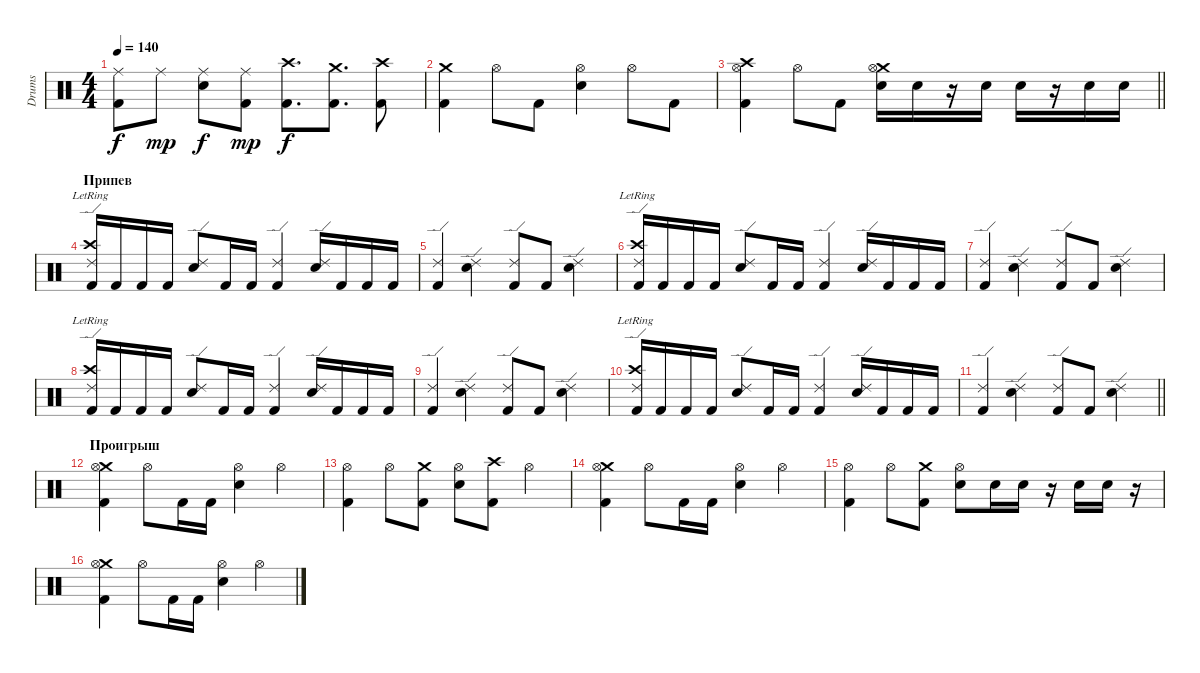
\track ("Drums" "Drums") {instrument percussion}
\staff {score}
\articulation defaults
\ts (4 4)
\tempo 140
\clef neutral
\ks c
("Kick (hit) 2" "Ride (middle)").8{dy f} "Ride (middle)".8{dy mp} ("Electric Snare (hit)" "Ride (middle)").8{dy f} ("Kick (hit) 2" "Ride (middle)").8{dy mp} ("Crash high (hit)" "Kick (hit) 2").8{d dy f} ("Crash medium (hit)" "Kick (hit) 2").8{d} ("Crash high (hit)" "Kick (hit) 2").8 |
("Crash medium (hit)" "Kick (hit) 2").4 "Hi-Hat (open)".8 "Kick (hit) 2".8 ("Electric Snare (hit)" "Hi-Hat (open)").4 "Hi-Hat (open)".8 "Kick (hit) 2".8 |
\barLineRight lightlight
("Crash high (hit)" "Kick (hit) 2" "Hi-Hat (open)").4 "Hi-Hat (open)".8 "Kick (hit) 2".8 ("Crash medium (hit)" "Electric Snare (hit)" "Hi-Hat (open)").16 "Electric Snare (hit)".16 r.16 "Electric Snare (hit)".16 "Electric Snare (hit)".16 r.16 "Electric Snare (hit)".16 "Electric Snare (hit)".16 |
\section ("" "Припев")
("Crash high (hit)"{lr} "Ride (edge) 2"{lr} "Kick (hit) 2").16 "Kick (hit) 2".16 "Kick (hit) 2".16 "Kick (hit) 2".16 ("Ride (edge) 2" "Electric Snare (hit)").8 "Kick (hit) 2".16 "Kick (hit) 2".16 ("Ride (edge) 2" "Kick (hit) 2").4 ("Ride (edge) 2" "Electric Snare (hit)").16 "Kick (hit) 2".16 "Kick (hit) 2".16 "Kick (hit) 2".16 |
("Ride (edge) 2" "Kick (hit) 2").4 ("Ride (edge) 2" "Electric Snare (hit)").4 ("Ride (edge) 2" "Kick (hit) 2").8 "Kick (hit) 2".8 ("Ride (edge) 2" "Electric Snare (hit)").4 |
("Crash high (hit)"{lr} "Ride (edge) 2"{lr} "Kick (hit) 2").16 "Kick (hit) 2".16 "Kick (hit) 2".16 "Kick (hit) 2".16 ("Ride (edge) 2" "Electric Snare (hit)").8 "Kick (hit) 2".16 "Kick (hit) 2".16 ("Ride (edge) 2" "Kick (hit) 2").4 ("Ride (edge) 2" "Electric Snare (hit)").16 "Kick (hit) 2".16 "Kick (hit) 2".16 "Kick (hit) 2".16 |
("Ride (edge) 2" "Kick (hit) 2").4 ("Ride (edge) 2" "Electric Snare (hit)").4 ("Ride (edge) 2" "Kick (hit) 2").8 "Kick (hit) 2".8 ("Ride (edge) 2" "Electric Snare (hit)").4 |
("Crash high (hit)"{lr} "Ride (edge) 2"{lr} "Kick (hit) 2").16 "Kick (hit) 2".16 "Kick (hit) 2".16 "Kick (hit) 2".16 ("Ride (edge) 2" "Electric Snare (hit)").8 "Kick (hit) 2".16 "Kick (hit) 2".16 ("Ride (edge) 2" "Kick (hit) 2").4 ("Ride (edge) 2" "Electric Snare (hit)").16 "Kick (hit) 2".16 "Kick (hit) 2".16 "Kick (hit) 2".16 |
("Ride (edge) 2" "Kick (hit) 2").4 ("Ride (edge) 2" "Electric Snare (hit)").4 ("Ride (edge) 2" "Kick (hit) 2").8 "Kick (hit) 2".8 ("Ride (edge) 2" "Electric Snare (hit)").4 |
("Crash high (hit)"{lr} "Ride (edge) 2"{lr} "Kick (hit) 2").16 "Kick (hit) 2".16 "Kick (hit) 2".16 "Kick (hit) 2".16 ("Ride (edge) 2" "Electric Snare (hit)").8 "Kick (hit) 2".16 "Kick (hit) 2".16 ("Ride (edge) 2" "Kick (hit) 2").4 ("Ride (edge) 2" "Electric Snare (hit)").16 "Kick (hit) 2".16 "Kick (hit) 2".16 "Kick (hit) 2".16 |
\barLineRight lightlight
("Ride (edge) 2" "Kick (hit) 2").4 ("Ride (edge) 2" "Electric Snare (hit)").4 ("Ride (edge) 2" "Kick (hit) 2").8 "Kick (hit) 2".8 ("Ride (edge) 2" "Electric Snare (hit)").4 |
\section ("" "Проигрыш")
("Crash medium (hit)" "Kick (hit) 2" "Hi-Hat (open)").4 "Hi-Hat (open)".8 "Kick (hit) 2".16 "Kick (hit) 2".16 ("Electric Snare (hit)" "Hi-Hat (open)").4 "Hi-Hat (open)".4 |
("Kick (hit) 2" "Hi-Hat (open)").4 "Hi-Hat (open)".8 ("Crash medium (hit)" "Kick (hit) 2").8 ("Electric Snare (hit)" "Hi-Hat (open)").8 ("Crash high (hit)" "Kick (hit) 2").8 "Hi-Hat (open)".4 |
("Crash medium (hit)" "Kick (hit) 2" "Hi-Hat (open)").4 "Hi-Hat (open)".8 "Kick (hit) 2".16 "Kick (hit) 2".16 ("Electric Snare (hit)" "Hi-Hat (open)").4 "Hi-Hat (open)".4 |
("Kick (hit) 2" "Hi-Hat (open)").4 "Hi-Hat (open)".8 ("Crash medium (hit)" "Kick (hit) 2").8 ("Electric Snare (hit)" "Hi-Hat (open)").8 "Electric Snare (hit)".16 "Electric Snare (hit)".16 r.16 "Electric Snare (hit)".16 "Electric Snare (hit)".16 r.16 |
("Crash medium (hit)" "Kick (hit) 2" "Hi-Hat (open)").4 "Hi-Hat (open)".8 "Kick (hit) 2".16 "Kick (hit) 2".16 ("Electric Snare (hit)" "Hi-Hat (open)").4 "Hi-Hat (open)".4
